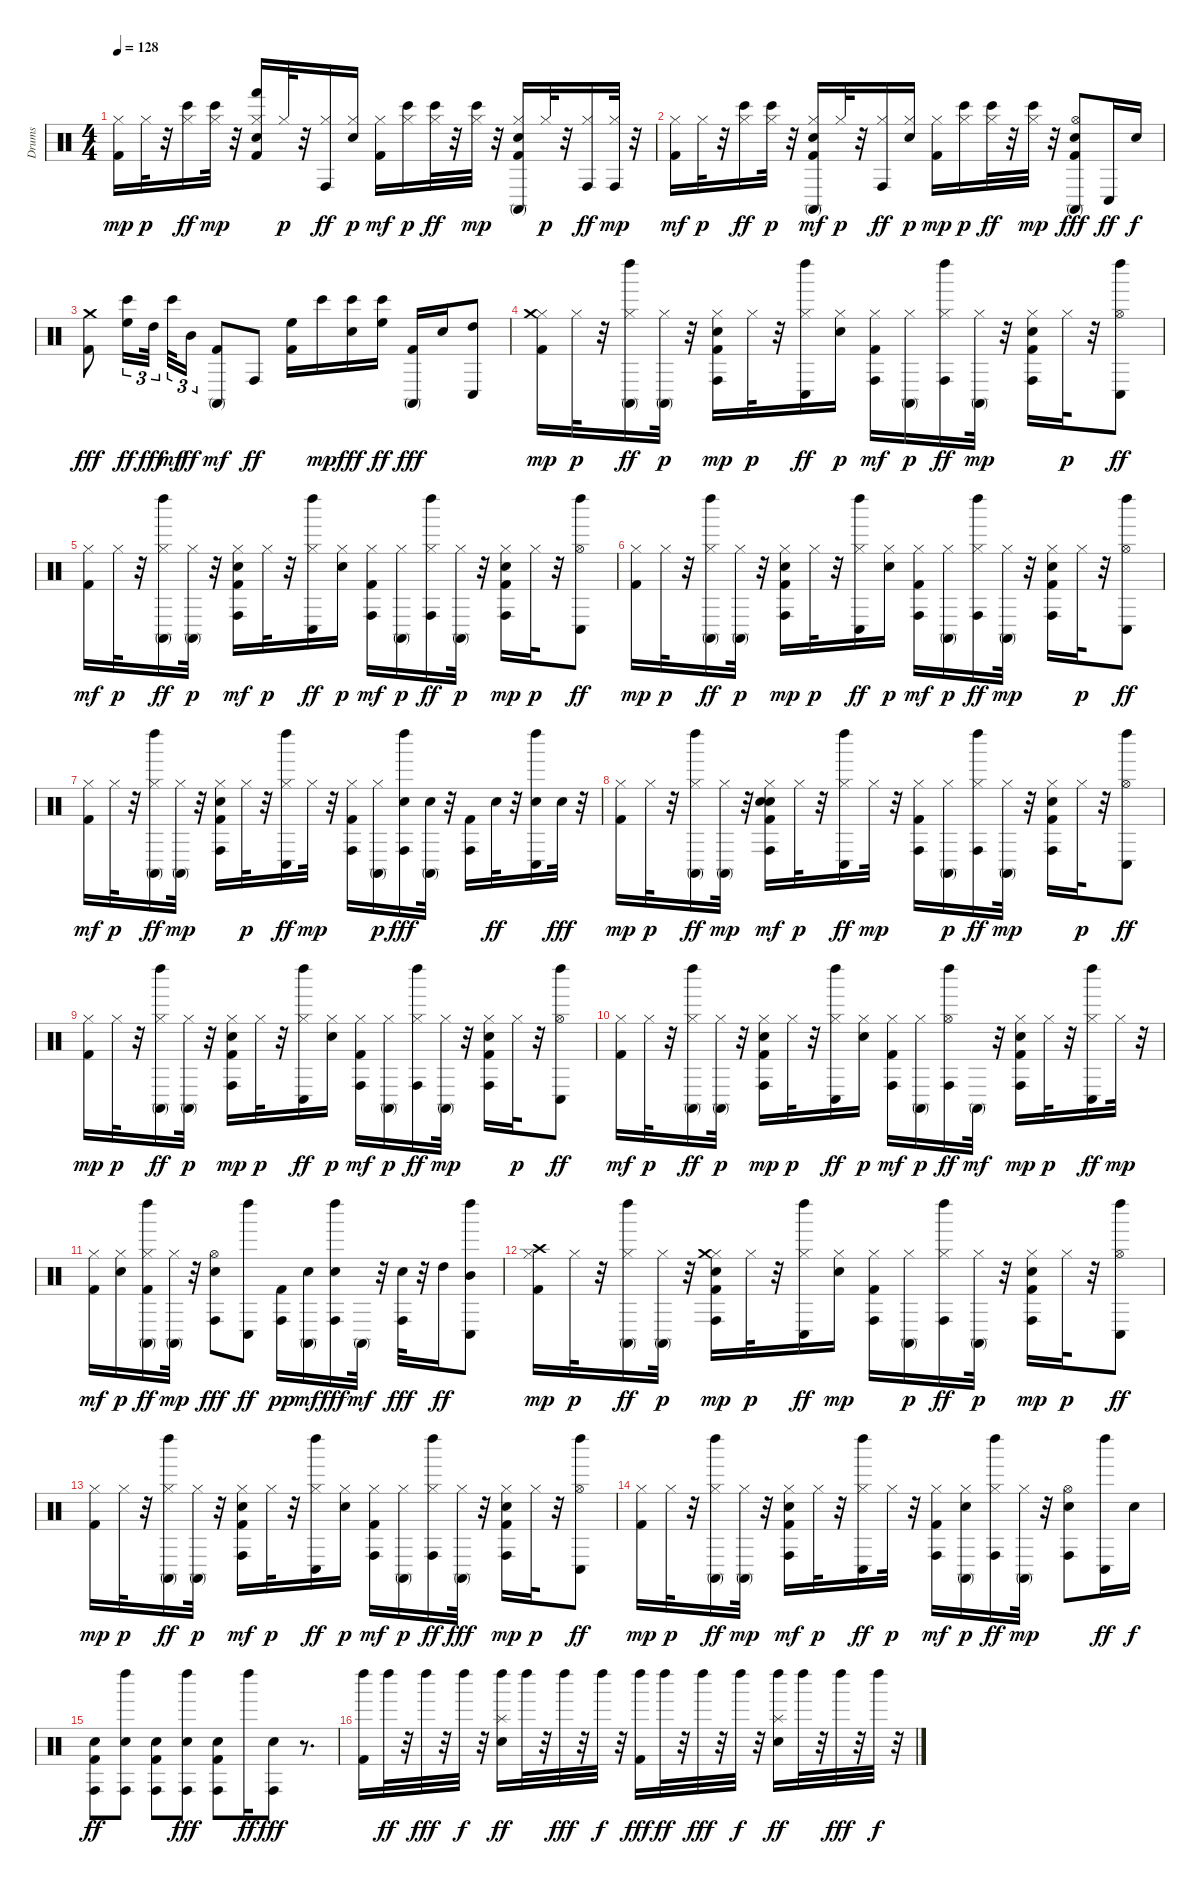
\track ("Drums" "Drums") {instrument percussion}
\staff {score}
\articulation defaults
\ts (4 4)
\tempo 128
\clef neutral
\ks c
("Kick (hit) 2" "Hi-Hat (closed)").16{dy mp} "Hi-Hat (closed)".32{dy p} r.32 ("Bongo High (hit)" "Hi-Hat (closed)").16{dy ff} ("Bongo High (hit)" "Hi-Hat (closed)").32{dy mp} r.32 ("Kick (hit) 2" "Hand (hit)" "Electric Snare (hit)" "Hi-Hat (closed)").16 "Hi-Hat (closed)".32{dy p} r.32 ("Conga high (hit)" "Hi-Hat (closed)").16{dy ff} ("Electric Snare (hit)" "Hi-Hat (closed)").16{dy p} ("Kick (hit) 2" "Hi-Hat (closed)").16{dy mf} ("Bongo High (hit)" "Hi-Hat (closed)").16{dy p} ("Bongo High (hit)" "Hi-Hat (closed)").32{dy ff} r.32 ("Bongo High (hit)" "Hi-Hat (closed)").32{dy mp} r.32 ("Kick (hit) 2" "Conga high (mute)" "Electric Snare (hit)" "Hi-Hat (closed)").16 "Hi-Hat (closed)".32{dy p} r.32 ("Conga high (hit)" "Hi-Hat (closed)").16{dy ff} ("Conga high (hit)" "Hi-Hat (closed)").32{dy mp} r.32 |
("Kick (hit) 2" "Hi-Hat (closed)").16{dy mf} "Hi-Hat (closed)".32{dy p} r.32 ("Bongo High (hit)" "Hi-Hat (closed)").16{dy ff} ("Bongo High (hit)" "Hi-Hat (closed)").32{dy p} r.32 ("Kick (hit) 2" "Conga high (mute)" "Electric Snare (hit)" "Hi-Hat (closed)").16{dy mf} "Hi-Hat (closed)".32{dy p} r.32 ("Conga high (hit)" "Hi-Hat (closed)").16{dy ff} ("Electric Snare (hit)" "Hi-Hat (closed)").16{dy p} ("Kick (hit) 2" "Hi-Hat (closed)").16{dy mp} ("Bongo High (hit)" "Hi-Hat (closed)").16{dy p} ("Bongo High (hit)" "Hi-Hat (closed)").32{dy ff} r.32 ("Bongo High (hit)" "Hi-Hat (closed)").32{dy mp} r.32 ("Kick (hit) 2" "Conga high (mute)" "Electric Snare (hit)" "Hi-Hat (open)").8{dy fff} "Conga low (hit)".16{dy ff} "Electric Snare (hit)".16{dy f} |
("Kick (hit) 2" "Crash medium (hit)").8{dy fff} ("Bongo High (hit)" "High Floor Tom (hit)").16{tu (3 2) dy ff} "High Tom (hit)".32{tu (3 2) dy fff beam splitsecondary} "Bongo High (hit)".32{tu (3 2) dy mf} "Mid Tom (hit)".16{tu (3 2) dy ff} ("Kick (hit) 2" "Conga high (mute)").8{dy mf} "Conga high (hit)".8{dy ff} ("Kick (hit) 2" "High Floor Tom (hit)").16 "Bongo High (hit)".16{dy mp} ("Bongo High (hit)" "Electric Snare (hit)").16{dy fff} ("Bongo High (hit)" "High Floor Tom (hit)").16{dy ff} ("Kick (hit) 2" "Conga high (mute)").16{dy fff} "Electric Snare (hit)".16 ("Conga low (hit)" "High Tom (hit)").8 |
("Kick (hit) 2" "Hi-Hat (closed)" "Crash medium (hit)").16{dy mp} "Hi-Hat (closed)".32{dy p} r.32 ("Conga high (mute)" "Left Maraca (hit)" "Hi-Hat (closed)").16{dy ff} ("Conga high (mute)" "Hi-Hat (closed)").32{dy p} r.32 ("Kick (hit) 2" "Conga high (hit)" "Electric Snare (hit)" "Hi-Hat (closed)").16{dy mp} "Hi-Hat (closed)".32{dy p} r.32 ("Conga low (hit)" "Left Maraca (hit)" "Hi-Hat (closed)").16{dy ff} ("Electric Snare (hit)" "Hi-Hat (closed)").16{dy p} ("Kick (hit) 2" "Conga high (hit)" "Hi-Hat (closed)").16{dy mf} ("Conga high (mute)" "Hi-Hat (closed)").16{dy p} ("Conga high (hit)" "Left Maraca (hit)" "Hi-Hat (closed)").16{dy ff} ("Conga high (mute)" "Hi-Hat (closed)").32{dy mp} r.32 ("Kick (hit) 2" "Conga high (hit)" "Electric Snare (hit)" "Hi-Hat (closed)").16 "Hi-Hat (closed)".32{dy p} r.32 ("Conga low (hit)" "Left Maraca (hit)" "Hi-Hat (open)").8{dy ff} |
("Kick (hit) 2" "Hi-Hat (closed)").16{dy mf} "Hi-Hat (closed)".32{dy p} r.32 ("Conga high (mute)" "Left Maraca (hit)" "Hi-Hat (closed)").16{dy ff} ("Conga high (mute)" "Hi-Hat (closed)").32{dy p} r.32 ("Kick (hit) 2" "Conga high (hit)" "Electric Snare (hit)" "Hi-Hat (closed)").16{dy mf} "Hi-Hat (closed)".32{dy p} r.32 ("Conga low (hit)" "Left Maraca (hit)" "Hi-Hat (closed)").16{dy ff} ("Electric Snare (hit)" "Hi-Hat (closed)").16{dy p} ("Kick (hit) 2" "Conga high (hit)" "Hi-Hat (closed)").16{dy mf} ("Conga high (mute)" "Hi-Hat (closed)").16{dy p} ("Conga high (hit)" "Left Maraca (hit)" "Hi-Hat (closed)").16{dy ff} ("Conga high (mute)" "Hi-Hat (closed)").32{dy p} r.32 ("Kick (hit) 2" "Conga high (hit)" "Electric Snare (hit)" "Hi-Hat (closed)").16{dy mp} "Hi-Hat (closed)".32{dy p} r.32 ("Conga low (hit)" "Left Maraca (hit)" "Hi-Hat (open)").8{dy ff} |
("Kick (hit) 2" "Hi-Hat (closed)").16{dy mp} "Hi-Hat (closed)".32{dy p} r.32 ("Conga high (mute)" "Left Maraca (hit)" "Hi-Hat (closed)").16{dy ff} ("Conga high (mute)" "Hi-Hat (closed)").32{dy p} r.32 ("Kick (hit) 2" "Conga high (hit)" "Electric Snare (hit)" "Hi-Hat (closed)").16{dy mp} "Hi-Hat (closed)".32{dy p} r.32 ("Conga low (hit)" "Left Maraca (hit)" "Hi-Hat (closed)").16{dy ff} ("Electric Snare (hit)" "Hi-Hat (closed)").16{dy p} ("Kick (hit) 2" "Conga high (hit)" "Hi-Hat (closed)").16{dy mf} ("Conga high (mute)" "Hi-Hat (closed)").16{dy p} ("Conga high (hit)" "Left Maraca (hit)" "Hi-Hat (closed)").16{dy ff} ("Conga high (mute)" "Hi-Hat (closed)").32{dy mp} r.32 ("Kick (hit) 2" "Conga high (hit)" "Electric Snare (hit)" "Hi-Hat (closed)").16 "Hi-Hat (closed)".32{dy p} r.32 ("Conga low (hit)" "Left Maraca (hit)" "Hi-Hat (open)").8{dy ff} |
("Kick (hit) 2" "Hi-Hat (closed)").16{dy mf} "Hi-Hat (closed)".32{dy p} r.32 ("Conga high (mute)" "Left Maraca (hit)" "Hi-Hat (closed)").16{dy ff} ("Conga high (mute)" "Hi-Hat (closed)").32{dy mp} r.32 ("Kick (hit) 2" "Conga high (hit)" "Electric Snare (hit)" "Hi-Hat (closed)").16 "Hi-Hat (closed)".32{dy p} r.32 ("Conga low (hit)" "Left Maraca (hit)" "Hi-Hat (closed)").16{dy ff} "Hi-Hat (closed)".32{dy mp} r.32 ("Kick (hit) 2" "Conga high (hit)" "Hi-Hat (closed)").16 ("Conga high (mute)" "Hi-Hat (closed)").16{dy p} ("Conga high (hit)" "Left Maraca (hit)" "Electric Snare (hit)").16{dy fff} ("Conga high (mute)" "Electric Snare (hit)").32 r.32 ("Kick (hit) 2" "Conga high (hit)").16 "Electric Snare (hit)".32{dy ff} r.32 ("Conga low (hit)" "Left Maraca (hit)" "Electric Snare (hit)").16 "Electric Snare (hit)".32{dy fff} r.32 |
("Kick (hit) 2" "Hi-Hat (closed)").16{dy mp} "Hi-Hat (closed)".32{dy p} r.32 ("Conga high (mute)" "Left Maraca (hit)" "Hi-Hat (closed)").16{dy ff} ("Conga high (mute)" "Hi-Hat (closed)").32{dy mp} r.32 ("Kick (hit) 2" "Hand Clap (hit)" "Conga high (hit)" "Electric Snare (hit)" "Hi-Hat (closed)").16{dy mf} "Hi-Hat (closed)".32{dy p} r.32 ("Conga low (hit)" "Left Maraca (hit)" "Hi-Hat (closed)").16{dy ff} "Hi-Hat (closed)".32{dy mp} r.32 ("Kick (hit) 2" "Conga high (hit)" "Hi-Hat (closed)").16 ("Conga high (mute)" "Hi-Hat (closed)").16{dy p} ("Conga high (hit)" "Left Maraca (hit)" "Hi-Hat (closed)").16{dy ff} ("Conga high (mute)" "Hi-Hat (closed)").32{dy mp} r.32 ("Kick (hit) 2" "Conga high (hit)" "Electric Snare (hit)" "Hi-Hat (closed)").16 "Hi-Hat (closed)".32{dy p} r.32 ("Conga low (hit)" "Left Maraca (hit)" "Hi-Hat (open)").8{dy ff} |
("Kick (hit) 2" "Hi-Hat (closed)").16{dy mp} "Hi-Hat (closed)".32{dy p} r.32 ("Conga high (mute)" "Left Maraca (hit)" "Hi-Hat (closed)").16{dy ff} ("Conga high (mute)" "Hi-Hat (closed)").32{dy p} r.32 ("Kick (hit) 2" "Conga high (hit)" "Electric Snare (hit)" "Hi-Hat (closed)").16{dy mp} "Hi-Hat (closed)".32{dy p} r.32 ("Conga low (hit)" "Left Maraca (hit)" "Hi-Hat (closed)").16{dy ff} ("Electric Snare (hit)" "Hi-Hat (closed)").16{dy p} ("Kick (hit) 2" "Conga high (hit)" "Hi-Hat (closed)").16{dy mf} ("Conga high (mute)" "Hi-Hat (closed)").16{dy p} ("Conga high (hit)" "Left Maraca (hit)" "Hi-Hat (closed)").16{dy ff} ("Conga high (mute)" "Hi-Hat (closed)").32{dy mp} r.32 ("Kick (hit) 2" "Conga high (hit)" "Electric Snare (hit)" "Hi-Hat (closed)").16 "Hi-Hat (closed)".32{dy p} r.32 ("Conga low (hit)" "Left Maraca (hit)" "Hi-Hat (open)").8{dy ff} |
("Kick (hit) 2" "Hi-Hat (closed)").16{dy mf} "Hi-Hat (closed)".32{dy p} r.32 ("Conga high (mute)" "Left Maraca (hit)" "Hi-Hat (closed)").16{dy ff} ("Conga high (mute)" "Hi-Hat (closed)").32{dy p} r.32 ("Kick (hit) 2" "Conga high (hit)" "Electric Snare (hit)" "Hi-Hat (closed)").16{dy mp} "Hi-Hat (closed)".32{dy p} r.32 ("Conga low (hit)" "Left Maraca (hit)" "Hi-Hat (closed)").16{dy ff} ("Electric Snare (hit)" "Hi-Hat (closed)").16{dy p} ("Kick (hit) 2" "Conga high (hit)" "Hi-Hat (closed)").16{dy mf} ("Conga high (mute)" "Hi-Hat (closed)").16{dy p} ("Conga high (hit)" "Left Maraca (hit)" "Hi-Hat (open)").16{dy ff} "Conga high (mute)".32{dy mf} r.32 ("Kick (hit) 2" "Conga high (hit)" "Electric Snare (hit)" "Hi-Hat (closed)").16{dy mp} "Hi-Hat (closed)".32{dy p} r.32 ("Conga low (hit)" "Left Maraca (hit)" "Hi-Hat (closed)").16{dy ff} "Hi-Hat (closed)".32{dy mp} r.32 |
("Kick (hit) 2" "Hi-Hat (closed)").16{dy mf} ("Electric Snare (hit)" "Hi-Hat (closed)").16{dy p} ("Kick (hit) 2" "Conga high (mute)" "Left Maraca (hit)" "Hi-Hat (closed)").16{dy ff} ("Conga high (mute)" "Hi-Hat (closed)").32{dy mp} r.32 ("Conga high (hit)" "Electric Snare (hit)" "Hi-Hat (open)").8{dy fff} ("Conga low (hit)" "Left Maraca (hit)").8{dy ff} ("Kick (hit) 2" "Conga high (hit)").16{dy pp} ("Conga high (mute)" "Electric Snare (hit)").16{dy mf} ("Conga high (hit)" "Left Maraca (hit)" "Electric Snare (hit)").16{dy fff} "Conga high (mute)".32{dy mf} r.32 ("Conga high (hit)" "Electric Snare (hit)").32{dy fff} r.32 "High Tom (hit)".16{dy ff} ("Conga low (hit)" "Left Maraca (hit)" "Mid Tom (hit)").8 |
("Kick (hit) 2" "Hi-Hat (closed)" "Crash high (hit)").16{dy mp} "Hi-Hat (closed)".32{dy p} r.32 ("Conga high (mute)" "Left Maraca (hit)" "Hi-Hat (closed)").16{dy ff} ("Conga high (mute)" "Hi-Hat (closed)").32{dy p} r.32 ("Kick (hit) 2" "Conga high (hit)" "Electric Snare (hit)" "Hi-Hat (closed)" "Crash medium (hit)").16{dy mp} "Hi-Hat (closed)".32{dy p} r.32 ("Conga low (hit)" "Left Maraca (hit)" "Hi-Hat (closed)").16{dy ff} ("Electric Snare (hit)" "Hi-Hat (closed)").16{dy mp} ("Kick (hit) 2" "Conga high (hit)" "Hi-Hat (closed)").16 ("Conga high (mute)" "Hi-Hat (closed)").16{dy p} ("Conga high (hit)" "Left Maraca (hit)" "Hi-Hat (closed)").16{dy ff} ("Conga high (mute)" "Hi-Hat (closed)").32{dy p} r.32 ("Kick (hit) 2" "Conga high (hit)" "Electric Snare (hit)" "Hi-Hat (closed)").16{dy mp} "Hi-Hat (closed)".32{dy p} r.32 ("Conga low (hit)" "Left Maraca (hit)" "Hi-Hat (open)").8{dy ff} |
("Kick (hit) 2" "Hi-Hat (closed)").16{dy mp} "Hi-Hat (closed)".32{dy p} r.32 ("Conga high (mute)" "Left Maraca (hit)" "Hi-Hat (closed)").16{dy ff} ("Conga high (mute)" "Hi-Hat (closed)").32{dy p} r.32 ("Kick (hit) 2" "Conga high (hit)" "Electric Snare (hit)" "Hi-Hat (closed)").16{dy mf} "Hi-Hat (closed)".32{dy p} r.32 ("Conga low (hit)" "Left Maraca (hit)" "Hi-Hat (closed)").16{dy ff} ("Electric Snare (hit)" "Hi-Hat (closed)").16{dy p} ("Kick (hit) 2" "Conga high (hit)" "Hi-Hat (closed)").16{dy mf} ("Conga high (mute)" "Hi-Hat (closed)").16{dy p} ("Conga high (hit)" "Left Maraca (hit)" "Hi-Hat (closed)").16{dy ff} ("Conga high (mute)" "Hi-Hat (closed)").32{dy fff} r.32 ("Kick (hit) 2" "Conga high (hit)" "Electric Snare (hit)" "Hi-Hat (closed)").16{dy mp} "Hi-Hat (closed)".32{dy p} r.32 ("Conga low (hit)" "Left Maraca (hit)" "Hi-Hat (open)").8{dy ff} |
("Kick (hit) 2" "Hi-Hat (closed)").16{dy mp} "Hi-Hat (closed)".32{dy p} r.32 ("Conga high (mute)" "Left Maraca (hit)" "Hi-Hat (closed)").16{dy ff} ("Conga high (mute)" "Hi-Hat (closed)").32{dy mp} r.32 ("Kick (hit) 2" "Conga high (hit)" "Electric Snare (hit)" "Hi-Hat (closed)").16{dy mf} "Hi-Hat (closed)".32{dy p} r.32 ("Conga low (hit)" "Left Maraca (hit)" "Hi-Hat (closed)").16{dy ff} "Hi-Hat (closed)".32{dy p} r.32 ("Kick (hit) 2" "Conga high (hit)" "Hi-Hat (closed)").16{dy mf} ("Conga high (mute)" "Electric Snare (hit)" "Hi-Hat (closed)").16{dy p} ("Conga high (hit)" "Left Maraca (hit)" "Hi-Hat (closed)").16{dy ff} ("Conga high (mute)" "Hi-Hat (closed)").32{dy mp} r.32 ("Conga high (hit)" "Electric Snare (hit)" "Hi-Hat (open)").8 ("Conga low (hit)" "Left Maraca (hit)").16{dy ff} "Electric Snare (hit)".16{dy f} |
("Kick (hit) 2" "Conga high (hit)" "Electric Snare (hit)").8{dy ff} ("Conga high (hit)" "Left Maraca (hit)" "Electric Snare (hit)").8 ("Kick (hit) 2" "Conga high (hit)" "Electric Snare (hit)").8 ("Conga high (hit)" "Left Maraca (hit)" "Electric Snare (hit)").8{dy fff} ("Kick (hit) 2" "Conga high (hit)" "Electric Snare (hit)").8 "Left Maraca (hit)".16{dy ff} ("Conga high (hit)" "Electric Snare (hit)").8{dy fff} r.8{d} |
("Kick (hit) 2" "Left Maraca (hit)").16 "Left Maraca (hit)".32{dy ff} r.32 "Left Maraca (hit)".32{dy fff} r.32 "Left Maraca (hit)".32{dy f} r.32 ("Left Maraca (hit)" "Snare (hit) 2" "Splash (hit)").16{dy ff} "Left Maraca (hit)".32 r.32 "Left Maraca (hit)".32{dy fff} r.32 "Left Maraca (hit)".32{dy f} r.32 ("Kick (hit) 2" "Left Maraca (hit)").16{dy fff} "Left Maraca (hit)".32{dy ff} r.32 "Left Maraca (hit)".32{dy fff} r.32 "Left Maraca (hit)".32{dy f} r.32 ("Left Maraca (hit)" "Snare (hit) 2" "Splash (hit)").16{dy ff} "Left Maraca (hit)".32 r.32 "Left Maraca (hit)".32{dy fff} r.32 "Left Maraca (hit)".32{dy f} r.32
